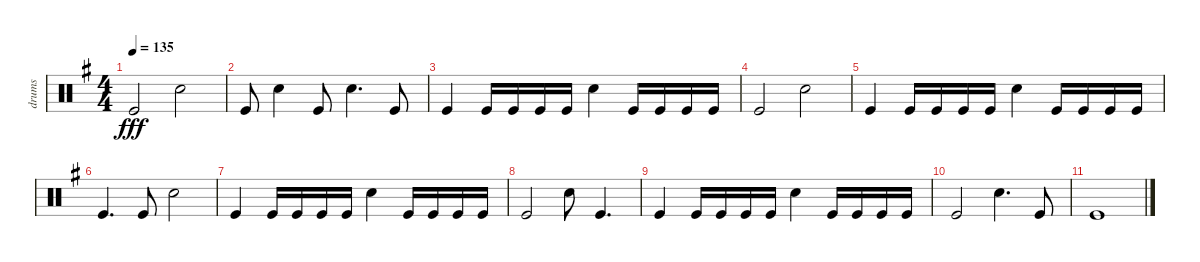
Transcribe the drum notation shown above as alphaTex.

\track ("drums" "drums") {instrument percussion}
\staff {score}
\articulation defaults
\ts (4 4)
\tempo 135
\clef neutral
\ks eminor "Kick (hit)".2{dy fff} "Electric Snare (hit)".2
|
"Kick (hit)".8 "Electric Snare (hit)".4 "Kick (hit)".8 "Electric Snare (hit)".4{d} "Kick (hit)".8 |
"Kick (hit)".4 "Kick (hit)".16 "Kick (hit)".16 "Kick (hit)".16 "Kick (hit)".16 "Electric Snare (hit)".4 "Kick (hit)".16 "Kick (hit)".16 "Kick (hit)".16 "Kick (hit)".16 |
"Kick (hit)".2 "Electric Snare (hit)".2 |
"Kick (hit)".4 "Kick (hit)".16 "Kick (hit)".16 "Kick (hit)".16 "Kick (hit)".16 "Electric Snare (hit)".4 "Kick (hit)".16 "Kick (hit)".16 "Kick (hit)".16 "Kick (hit)".16 |
"Kick (hit)".4{d} "Kick (hit)".8 "Electric Snare (hit)".2 |
"Kick (hit)".4 "Kick (hit)".16 "Kick (hit)".16 "Kick (hit)".16 "Kick (hit)".16 "Electric Snare (hit)".4 "Kick (hit)".16 "Kick (hit)".16 "Kick (hit)".16 "Kick (hit)".16 |
"Kick (hit)".2 "Electric Snare (hit)".8 "Kick (hit)".4{d} |
"Kick (hit)".4 "Kick (hit)".16 "Kick (hit)".16 "Kick (hit)".16 "Kick (hit)".16 "Electric Snare (hit)".4 "Kick (hit)".16 "Kick (hit)".16 "Kick (hit)".16 "Kick (hit)".16 |
"Kick (hit)".2 "Electric Snare (hit)".4{d} "Kick (hit)".8 |
"Kick (hit)".1
